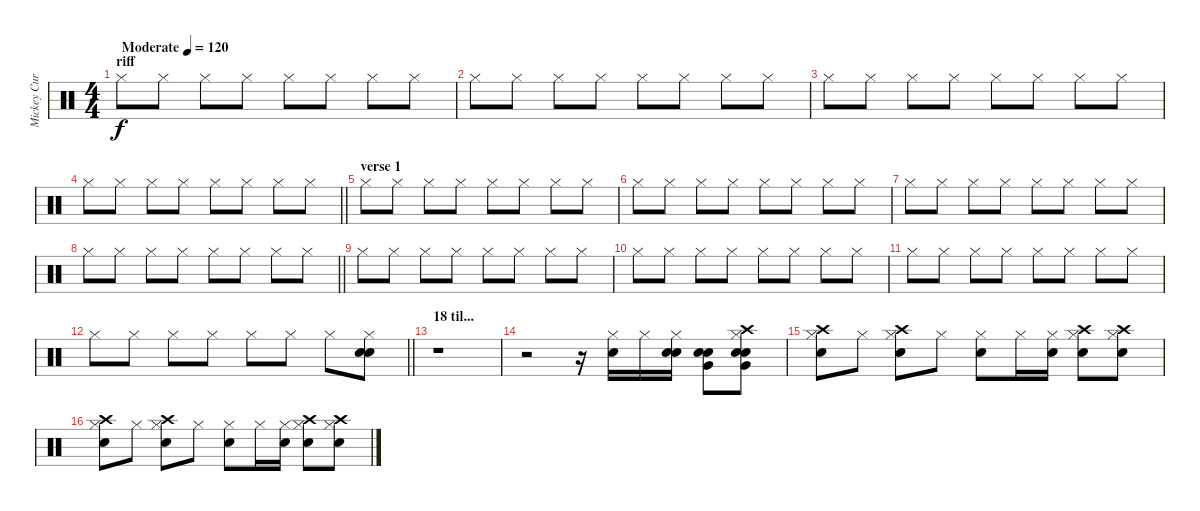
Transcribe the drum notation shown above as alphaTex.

\track ("Mickey Curry" "Mickey Cur") {instrument percussion}
\staff {score}
\articulation defaults
\ts (4 4)
\section ("" "riff")
\tempo (120 "Moderate")
\clef neutral
\ks c "Hi-Hat (closed)".8{dy f} "Hi-Hat (closed)".8 "Hi-Hat (closed)".8 "Hi-Hat (closed)".8 "Hi-Hat (closed)".8 "Hi-Hat (closed)".8 "Hi-Hat (closed)".8 "Hi-Hat (closed)".8
|
"Hi-Hat (closed)".8 "Hi-Hat (closed)".8 "Hi-Hat (closed)".8 "Hi-Hat (closed)".8 "Hi-Hat (closed)".8 "Hi-Hat (closed)".8 "Hi-Hat (closed)".8 "Hi-Hat (closed)".8 |
"Hi-Hat (closed)".8 "Hi-Hat (closed)".8 "Hi-Hat (closed)".8 "Hi-Hat (closed)".8 "Hi-Hat (closed)".8 "Hi-Hat (closed)".8 "Hi-Hat (closed)".8 "Hi-Hat (closed)".8 |
\barLineRight lightlight "Hi-Hat (closed)".8 "Hi-Hat (closed)".8 "Hi-Hat (closed)".8 "Hi-Hat (closed)".8 "Hi-Hat (closed)".8 "Hi-Hat (closed)".8 "Hi-Hat (closed)".8 "Hi-Hat (closed)".8
|
\section ("" "verse 1")
"Hi-Hat (closed)".8 "Hi-Hat (closed)".8 "Hi-Hat (closed)".8 "Hi-Hat (closed)".8 "Hi-Hat (closed)".8 "Hi-Hat (closed)".8 "Hi-Hat (closed)".8 "Hi-Hat (closed)".8 |
"Hi-Hat (closed)".8 "Hi-Hat (closed)".8 "Hi-Hat (closed)".8 "Hi-Hat (closed)".8 "Hi-Hat (closed)".8 "Hi-Hat (closed)".8 "Hi-Hat (closed)".8 "Hi-Hat (closed)".8 |
"Hi-Hat (closed)".8 "Hi-Hat (closed)".8 "Hi-Hat (closed)".8 "Hi-Hat (closed)".8 "Hi-Hat (closed)".8 "Hi-Hat (closed)".8 "Hi-Hat (closed)".8 "Hi-Hat (closed)".8 |
\barLineRight lightlight "Hi-Hat (closed)".8 "Hi-Hat (closed)".8 "Hi-Hat (closed)".8 "Hi-Hat (closed)".8 "Hi-Hat (closed)".8 "Hi-Hat (closed)".8 "Hi-Hat (closed)".8 "Hi-Hat (closed)".8
|
"Hi-Hat (closed)".8 "Hi-Hat (closed)".8 "Hi-Hat (closed)".8 "Hi-Hat (closed)".8 "Hi-Hat (closed)".8 "Hi-Hat (closed)".8 "Hi-Hat (closed)".8 "Hi-Hat (closed)".8 |
"Hi-Hat (closed)".8 "Hi-Hat (closed)".8 "Hi-Hat (closed)".8 "Hi-Hat (closed)".8 "Hi-Hat (closed)".8 "Hi-Hat (closed)".8 "Hi-Hat (closed)".8 "Hi-Hat (closed)".8 |
"Hi-Hat (closed)".8 "Hi-Hat (closed)".8 "Hi-Hat (closed)".8 "Hi-Hat (closed)".8 "Hi-Hat (closed)".8 "Hi-Hat (closed)".8 "Hi-Hat (closed)".8 "Hi-Hat (closed)".8 |
\barLineRight lightlight "Hi-Hat (closed)".8 "Hi-Hat (closed)".8 "Hi-Hat (closed)".8 "Hi-Hat (closed)".8 "Hi-Hat (closed)".8 "Hi-Hat (closed)".8 "Hi-Hat (closed)".8
("Hi-Hat (closed)" "Snare (hit) 2" "Snare (hit) 2").8 |
\section ("" "18 til...")
r.1 |
r.2 r.16 ("Hi-Hat (closed)" "Electric Snare (hit)").16 "Hi-Hat (closed)".16 ("Hi-Hat (closed)" "Snare (hit) 2" "Electric Snare (hit)").16 ("Very Low Tom (hit)" "Snare (hit) 2" "Snare (hit) 2").8 ("Very Low Tom (hit)" "Hi-Hat (closed)" "Snare (hit) 2" "Snare (hit) 2" "Crash high (hit)").8 |
("Hi-Hat (closed)" "Snare (hit) 2" "Crash high (hit)").8 "Hi-Hat (closed)".8 ("Hi-Hat (closed)" "Snare (hit) 2" "Crash high (hit)").8 "Hi-Hat (closed)".8 ("Hi-Hat (closed)" "Snare (hit) 2").8 "Hi-Hat (closed)".16 ("Hi-Hat (closed)" "Electric Snare (hit)").16 ("Hi-Hat (closed)" "Snare (hit) 2" "Crash high (hit)").8 ("Hi-Hat (closed)" "Snare (hit) 2" "Crash high (hit)").8 |
("Hi-Hat (closed)" "Snare (hit) 2" "Crash high (hit)").8 "Hi-Hat (closed)".8 ("Hi-Hat (closed)" "Snare (hit) 2" "Crash high (hit)").8 "Hi-Hat (closed)".8 ("Hi-Hat (closed)" "Snare (hit) 2").8 "Hi-Hat (closed)".16 ("Hi-Hat (closed)" "Electric Snare (hit)").16 ("Hi-Hat (closed)" "Snare (hit) 2" "Crash high (hit)").8 ("Hi-Hat (closed)" "Snare (hit) 2" "Crash high (hit)").8
